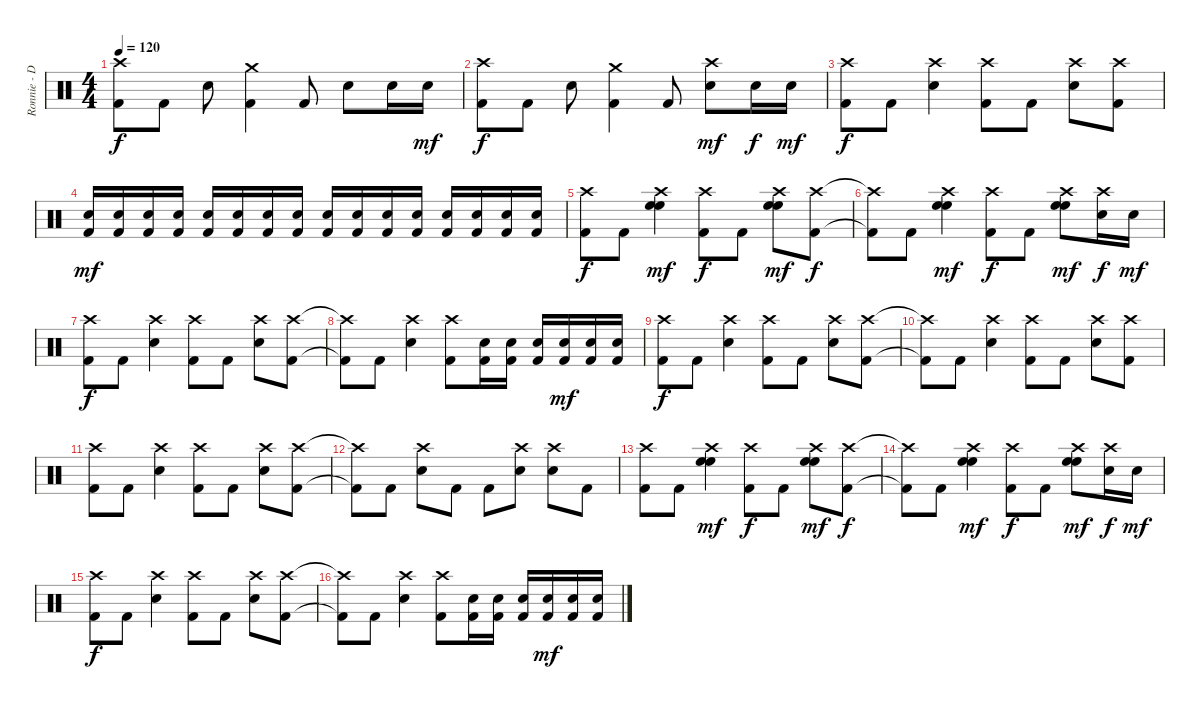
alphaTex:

\track ("Ronnie - Drums" "Ronnie - D") {instrument percussion}
\staff {score}
\articulation defaults
\ts (4 4)
\tempo 120
\clef neutral
\ks c
("Crash high (hit)" "Kick (hit) 2").8{dy f} "Kick (hit) 2".8 "Snare (hit) 2".8 ("Crash medium (hit)" "Kick (hit) 2").4 "Kick (hit) 2".8 "Snare (hit) 2".8 "Snare (hit) 2".16 "Snare (hit) 2".16{dy mf} |
("Crash high (hit)" "Kick (hit) 2").8{dy f} "Kick (hit) 2".8 "Snare (hit) 2".8 ("Crash medium (hit)" "Kick (hit) 2").4 "Kick (hit) 2".8 ("Crash high (hit)" "Snare (hit) 2").8{dy mf} "Snare (hit) 2".16{dy f} "Snare (hit) 2".16{dy mf} |
("Crash high (hit)" "Kick (hit) 2").8{dy f} "Kick (hit) 2".8 ("Crash high (hit)" "Snare (hit) 2").4 ("Crash high (hit)" "Kick (hit) 2").8 "Kick (hit) 2".8 ("Crash high (hit)" "Snare (hit) 2").8 ("Crash high (hit)" "Kick (hit) 2").8 |
("Snare (hit) 2" "Kick (hit) 2").16{dy mf} ("Snare (hit) 2" "Kick (hit) 2").16 ("Snare (hit) 2" "Kick (hit) 2").16 ("Snare (hit) 2" "Kick (hit) 2").16 ("Snare (hit) 2" "Kick (hit) 2").16 ("Snare (hit) 2" "Kick (hit) 2").16 ("Snare (hit) 2" "Kick (hit) 2").16 ("Snare (hit) 2" "Kick (hit) 2").16 ("Snare (hit) 2" "Kick (hit) 2").16 ("Snare (hit) 2" "Kick (hit) 2").16 ("Snare (hit) 2" "Kick (hit) 2").16 ("Snare (hit) 2" "Kick (hit) 2").16 ("Snare (hit) 2" "Kick (hit) 2").16 ("Snare (hit) 2" "Kick (hit) 2").16 ("Snare (hit) 2" "Kick (hit) 2").16 ("Snare (hit) 2" "Kick (hit) 2").16 |
("Crash high (hit)" "Kick (hit) 2").8{dy f} "Kick (hit) 2".8 ("Crash high (hit)" "High Floor Tom (hit)" "High Floor Tom (hit)").4{dy mf} ("Crash high (hit)" "Kick (hit) 2").8{dy f} "Kick (hit) 2".8 ("Crash high (hit)" "High Floor Tom (hit)" "High Floor Tom (hit)").8{dy mf} ("Crash high (hit)" "Kick (hit) 2").8{dy f} |
("Crash high (hit)"{t} "Kick (hit) 2"{t}).8 "Kick (hit) 2".8 ("Crash high (hit)" "High Floor Tom (hit)" "High Floor Tom (hit)").4{dy mf} ("Crash high (hit)" "Kick (hit) 2").8{dy f} "Kick (hit) 2".8 ("Crash high (hit)" "High Floor Tom (hit)" "High Floor Tom (hit)").8{dy mf} ("Crash high (hit)" "Snare (hit) 2").16{dy f} "Snare (hit) 2".16{dy mf} |
("Crash high (hit)" "Kick (hit) 2").8{dy f} "Kick (hit) 2".8 ("Crash high (hit)" "Snare (hit) 2").4 ("Crash high (hit)" "Kick (hit) 2").8 "Kick (hit) 2".8 ("Crash high (hit)" "Snare (hit) 2").8 ("Crash high (hit)" "Kick (hit) 2").8 |
("Crash high (hit)"{t} "Kick (hit) 2"{t}).8 "Kick (hit) 2".8 ("Crash high (hit)" "Snare (hit) 2").4 ("Crash high (hit)" "Kick (hit) 2").8 ("Kick (hit) 2" "Snare (hit) 2").16 ("Kick (hit) 2" "Snare (hit) 2").16 ("Kick (hit) 2" "Snare (hit) 2").16 ("Kick (hit) 2" "Snare (hit) 2").16{dy mf} ("Kick (hit) 2" "Snare (hit) 2").16 ("Kick (hit) 2" "Snare (hit) 2").16 |
("Crash high (hit)" "Kick (hit) 2").8{dy f} "Kick (hit) 2".8 ("Crash high (hit)" "Snare (hit) 2").4 ("Crash high (hit)" "Kick (hit) 2").8 "Kick (hit) 2".8 ("Crash high (hit)" "Snare (hit) 2").8 ("Crash high (hit)" "Kick (hit) 2").8 |
("Crash high (hit)"{t} "Kick (hit) 2"{t}).8 "Kick (hit) 2".8 ("Crash high (hit)" "Snare (hit) 2").4 ("Crash high (hit)" "Kick (hit) 2").8 "Kick (hit) 2".8 ("Crash high (hit)" "Snare (hit) 2").8 ("Crash high (hit)" "Kick (hit) 2").8 |
("Crash high (hit)" "Kick (hit) 2").8 "Kick (hit) 2".8 ("Crash high (hit)" "Snare (hit) 2").4 ("Crash high (hit)" "Kick (hit) 2").8 "Kick (hit) 2".8 ("Crash high (hit)" "Snare (hit) 2").8 ("Crash high (hit)" "Kick (hit) 2").8 |
("Crash high (hit)"{t} "Kick (hit) 2"{t}).8 "Kick (hit) 2".8 ("Crash high (hit)" "Snare (hit) 2").8 "Kick (hit) 2".8 "Kick (hit) 2".8 ("Crash high (hit)" "Snare (hit) 2").8 ("Crash high (hit)" "Snare (hit) 2").8 "Kick (hit) 2".8 |
("Crash high (hit)" "Kick (hit) 2").8 "Kick (hit) 2".8 ("Crash high (hit)" "High Floor Tom (hit)" "High Floor Tom (hit)").4{dy mf} ("Crash high (hit)" "Kick (hit) 2").8{dy f} "Kick (hit) 2".8 ("Crash high (hit)" "High Floor Tom (hit)" "High Floor Tom (hit)").8{dy mf} ("Crash high (hit)" "Kick (hit) 2").8{dy f} |
("Crash high (hit)"{t} "Kick (hit) 2"{t}).8 "Kick (hit) 2".8 ("Crash high (hit)" "High Floor Tom (hit)" "High Floor Tom (hit)").4{dy mf} ("Crash high (hit)" "Kick (hit) 2").8{dy f} "Kick (hit) 2".8 ("Crash high (hit)" "High Floor Tom (hit)" "High Floor Tom (hit)").8{dy mf} ("Crash high (hit)" "Snare (hit) 2").16{dy f} "Snare (hit) 2".16{dy mf} |
("Crash high (hit)" "Kick (hit) 2").8{dy f} "Kick (hit) 2".8 ("Crash high (hit)" "Snare (hit) 2").4 ("Crash high (hit)" "Kick (hit) 2").8 "Kick (hit) 2".8 ("Crash high (hit)" "Snare (hit) 2").8 ("Crash high (hit)" "Kick (hit) 2").8 |
("Crash high (hit)"{t} "Kick (hit) 2"{t}).8 "Kick (hit) 2".8 ("Crash high (hit)" "Snare (hit) 2").4 ("Crash high (hit)" "Kick (hit) 2").8 ("Kick (hit) 2" "Snare (hit) 2").16 ("Kick (hit) 2" "Snare (hit) 2").16 ("Kick (hit) 2" "Snare (hit) 2").16 ("Kick (hit) 2" "Snare (hit) 2").16{dy mf} ("Kick (hit) 2" "Snare (hit) 2").16 ("Kick (hit) 2" "Snare (hit) 2").16
